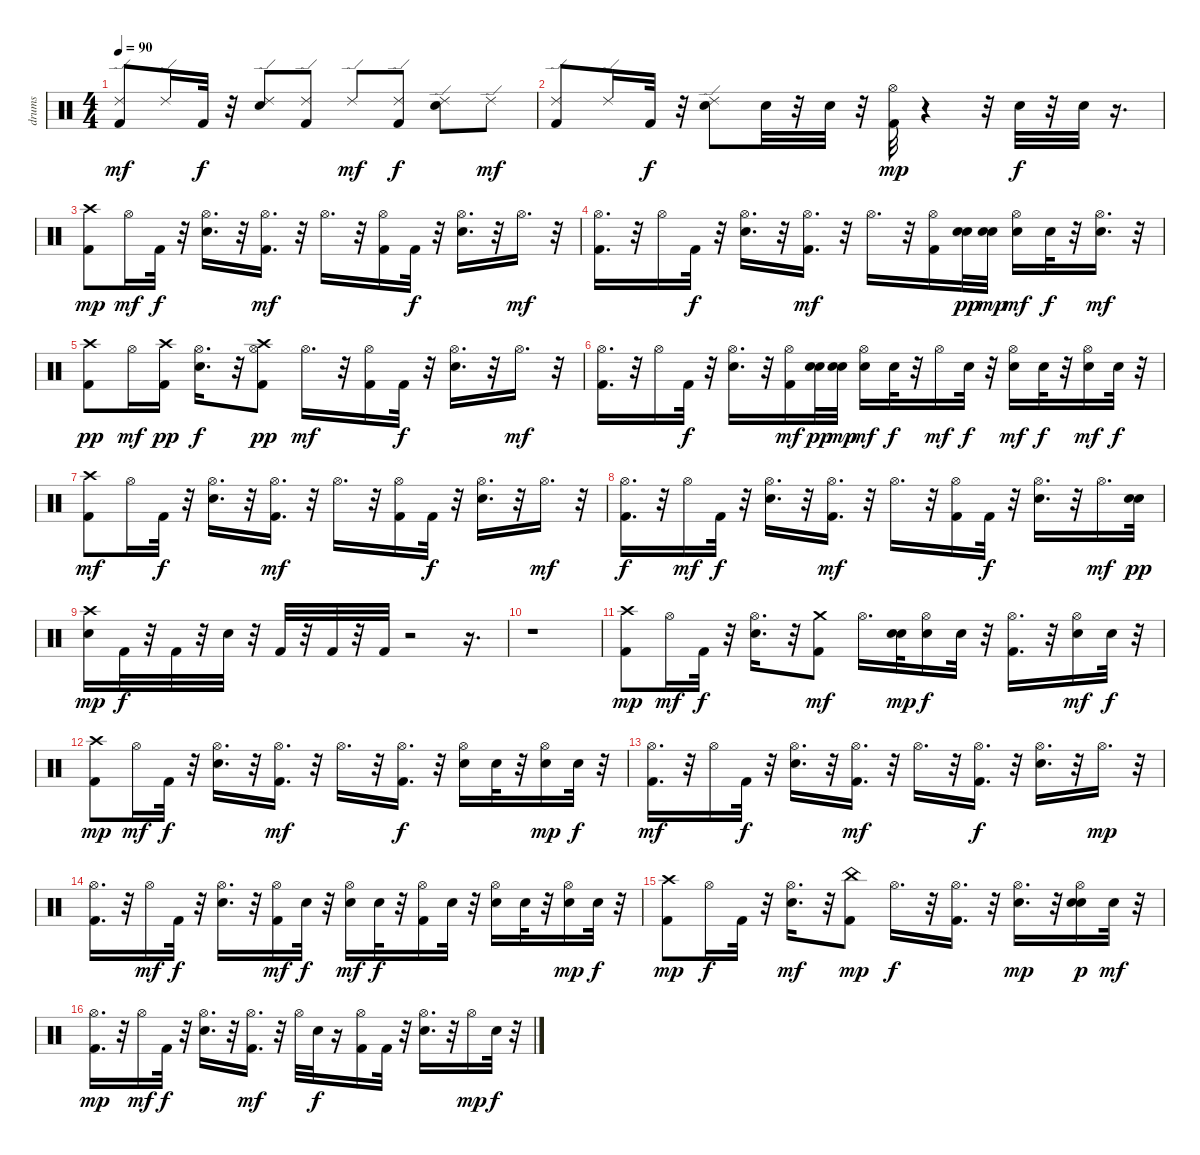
\track ("drums" "drums") {instrument percussion}
\staff {score}
\articulation defaults
\ts (4 4)
\tempo 90
\clef neutral
\ks c
("Kick (hit) 2" "Ride (edge) 2").8{dy mf} "Ride (edge) 2".16 "Kick (hit) 2".32{dy f} r.32 ("Snare (hit) 2" "Ride (edge) 2").8 ("Kick (hit) 2" "Ride (edge) 2").8 "Ride (edge) 2".8{dy mf} ("Kick (hit) 2" "Ride (edge) 2").8{dy f} ("Snare (hit) 2" "Ride (edge) 2").8 "Ride (edge) 2".8{dy mf} |
("Kick (hit) 2" "Ride (edge) 2").8 "Ride (edge) 2".16 "Kick (hit) 2".32{dy f} r.32 ("Snare (hit) 2" "Ride (edge) 2").8 "Snare (hit) 2".32 r.32 "Snare (hit) 2".32 r.32 ("Kick (hit) 2" "Hi-Hat (open)").32{dy mp} r.4 r.32 "Snare (hit) 2".32{dy f} r.32 "Snare (hit) 2".32 r.16{d} |
("Kick (hit) 2" "Crash high (hit)").8{dy mp} "Hi-Hat (open)".16{dy mf} "Kick (hit) 2".32{dy f} r.32 ("Snare (hit) 2" "Hi-Hat (open)").16{d} r.32 ("Kick (hit) 2" "Hi-Hat (open)").16{d dy mf} r.32 "Hi-Hat (open)".16{d} r.32 ("Kick (hit) 2" "Hi-Hat (open)").16 "Kick (hit) 2".32{dy f} r.32 ("Snare (hit) 2" "Hi-Hat (open)").16{d} r.32 "Hi-Hat (open)".16{d dy mf} r.32 |
("Kick (hit) 2" "Hi-Hat (open)").16{d} r.32 "Hi-Hat (open)".16 "Kick (hit) 2".32{dy f} r.32 ("Snare (hit) 2" "Hi-Hat (open)").16{d} r.32 ("Kick (hit) 2" "Hi-Hat (open)").16{d dy mf} r.32 "Hi-Hat (open)".16{d} r.32 ("Kick (hit) 2" "Hi-Hat (open)").16 ("Snare (hit) 2" "Snare (hit) 2").32{dy pp} ("Snare (hit) 2" "Snare (hit) 2").32{dy mp} ("Snare (hit) 2" "Hi-Hat (open)").16{dy mf} "Snare (hit) 2".32{dy f} r.32 ("Snare (hit) 2" "Hi-Hat (open)").16{d dy mf} r.32 |
("Kick (hit) 2" "Crash high (hit)").8{dy pp} "Hi-Hat (open)".16{dy mf} ("Kick (hit) 2" "Crash high (hit)").16{dy pp} ("Snare (hit) 2" "Hi-Hat (open)").16{d dy f} r.32 ("Kick (hit) 2" "Hi-Hat (open)" "Crash high (hit)").8{dy pp} "Hi-Hat (open)".16{d dy mf} r.32 ("Kick (hit) 2" "Hi-Hat (open)").16 "Kick (hit) 2".32{dy f} r.32 ("Snare (hit) 2" "Hi-Hat (open)").16{d} r.32 "Hi-Hat (open)".16{d dy mf} r.32 |
("Kick (hit) 2" "Hi-Hat (open)").16{d} r.32 "Hi-Hat (open)".16 "Kick (hit) 2".32{dy f} r.32 ("Snare (hit) 2" "Hi-Hat (open)").16{d} r.32 ("Kick (hit) 2" "Hi-Hat (open)").16{dy mf} ("Snare (hit) 2" "Snare (hit) 2").32{dy pp} ("Snare (hit) 2" "Snare (hit) 2").32{dy mp} ("Snare (hit) 2" "Hi-Hat (open)").16{dy mf} "Snare (hit) 2".32{dy f} r.32 "Hi-Hat (open)".16{dy mf} "Snare (hit) 2".32{dy f} r.32 ("Snare (hit) 2" "Hi-Hat (open)").16{dy mf} "Snare (hit) 2".32{dy f} r.32 ("Snare (hit) 2" "Hi-Hat (open)").16{dy mf} "Snare (hit) 2".32{dy f} r.32 |
("Kick (hit) 2" "Crash high (hit)").8{dy mf} "Hi-Hat (open)".16 "Kick (hit) 2".32{dy f} r.32 ("Snare (hit) 2" "Hi-Hat (open)").16{d} r.32 ("Kick (hit) 2" "Hi-Hat (open)").16{d dy mf} r.32 "Hi-Hat (open)".16{d} r.32 ("Kick (hit) 2" "Hi-Hat (open)").16 "Kick (hit) 2".32{dy f} r.32 ("Snare (hit) 2" "Hi-Hat (open)").16{d} r.32 "Hi-Hat (open)".16{d dy mf} r.32 |
("Kick (hit) 2" "Hi-Hat (open)").16{d dy f} r.32 "Hi-Hat (open)".16{dy mf} "Kick (hit) 2".32{dy f} r.32 ("Snare (hit) 2" "Hi-Hat (open)").16{d} r.32 ("Kick (hit) 2" "Hi-Hat (open)").16{d dy mf} r.32 "Hi-Hat (open)".16{d} r.32 ("Kick (hit) 2" "Hi-Hat (open)").16 "Kick (hit) 2".32{dy f} r.32 ("Snare (hit) 2" "Hi-Hat (open)").16{d} r.32 "Hi-Hat (open)".16{d dy mf} ("Snare (hit) 2" "Snare (hit) 2").32{dy pp} |
("Snare (hit) 2" "Crash high (hit)").16{dy mp} "Kick (hit) 2".32{dy f} r.32 "Kick (hit) 2".32 r.32 "Snare (hit) 2".32 r.32 "Kick (hit) 2".32 r.32 "Kick (hit) 2".32 r.32 "Kick (hit) 2".32 r.2 r.16{d} |
r.1 |
("Kick (hit) 2" "Crash high (hit)").8{dy mp} "Hi-Hat (open)".16{dy mf} "Kick (hit) 2".32{dy f} r.32 ("Snare (hit) 2" "Hi-Hat (open)").16{d} r.32 ("Kick (hit) 2" "Crash medium (hit)").8{dy mf} "Hi-Hat (open)".16{d} ("Snare (hit) 2" "Snare (hit) 2").32{dy mp} ("Snare (hit) 2" "Hi-Hat (open)").16{dy f} "Snare (hit) 2".32 r.32 ("Kick (hit) 2" "Hi-Hat (open)").16{d} r.32 ("Snare (hit) 2" "Hi-Hat (open)").16{dy mf} "Snare (hit) 2".32{dy f} r.32 |
("Kick (hit) 2" "Crash high (hit)").8{dy mp} "Hi-Hat (open)".16{dy mf} "Kick (hit) 2".32{dy f} r.32 ("Snare (hit) 2" "Hi-Hat (open)").16{d} r.32 ("Kick (hit) 2" "Hi-Hat (open)").16{d dy mf} r.32 "Hi-Hat (open)".16{d} r.32 ("Kick (hit) 2" "Hi-Hat (open)").16{d dy f} r.32 ("Snare (hit) 2" "Hi-Hat (open)").16 "Snare (hit) 2".32 r.32 ("Snare (hit) 2" "Hi-Hat (open)").16{dy mp} "Snare (hit) 2".32{dy f} r.32 |
("Kick (hit) 2" "Hi-Hat (open)").16{d dy mf} r.32 "Hi-Hat (open)".16 "Kick (hit) 2".32{dy f} r.32 ("Snare (hit) 2" "Hi-Hat (open)").16{d} r.32 ("Kick (hit) 2" "Hi-Hat (open)").16{d dy mf} r.32 "Hi-Hat (open)".16{d} r.32 ("Kick (hit) 2" "Hi-Hat (open)").16{d dy f} r.32 ("Snare (hit) 2" "Hi-Hat (open)").16{d} r.32 "Hi-Hat (open)".16{d dy mp} r.32 |
("Kick (hit) 2" "Hi-Hat (open)").16{d} r.32 "Hi-Hat (open)".16{dy mf} "Kick (hit) 2".32{dy f} r.32 ("Snare (hit) 2" "Hi-Hat (open)").16{d} r.32 ("Kick (hit) 2" "Hi-Hat (open)").16{dy mf} "Snare (hit) 2".32{dy f} r.32 ("Snare (hit) 2" "Hi-Hat (open)").16{dy mf} "Snare (hit) 2".32{dy f} r.32 ("Kick (hit) 2" "Hi-Hat (open)").16 "Snare (hit) 2".32 r.32 ("Snare (hit) 2" "Hi-Hat (open)").16 "Snare (hit) 2".32 r.32 ("Snare (hit) 2" "Hi-Hat (open)").16{dy mp} "Snare (hit) 2".32{dy f} r.32 |
("Kick (hit) 2" "Crash high (hit)").8{dy mp} "Hi-Hat (open)".16{dy f} "Kick (hit) 2".32 r.32 ("Snare (hit) 2" "Hi-Hat (open)").16{d dy mf} r.32 ("Kick (hit) 2" "China (hit)").8{dy mp} "Hi-Hat (open)".16{d dy f} r.32 ("Kick (hit) 2" "Hi-Hat (open)").16{d} r.32 ("Snare (hit) 2" "Hi-Hat (open)").16{d dy mp} r.32 ("Snare (hit) 2" "Hi-Hat (open)" "Snare (hit) 2").16{dy p} "Snare (hit) 2".32{dy mf} r.32 |
("Kick (hit) 2" "Hi-Hat (open)").16{d dy mp} r.32 "Hi-Hat (open)".16{dy mf} "Kick (hit) 2".32{dy f} r.32 ("Snare (hit) 2" "Hi-Hat (open)").16{d} r.32 ("Kick (hit) 2" "Hi-Hat (open)").16{d dy mf} r.32 "Hi-Hat (open)".32 "Snare (hit) 2".32{dy f} r.16 ("Kick (hit) 2" "Hi-Hat (open)").16 "Kick (hit) 2".32 r.32 ("Snare (hit) 2" "Hi-Hat (open)").16{d} r.32 "Hi-Hat (open)".16{dy mp} "Snare (hit) 2".32{dy f} r.32
